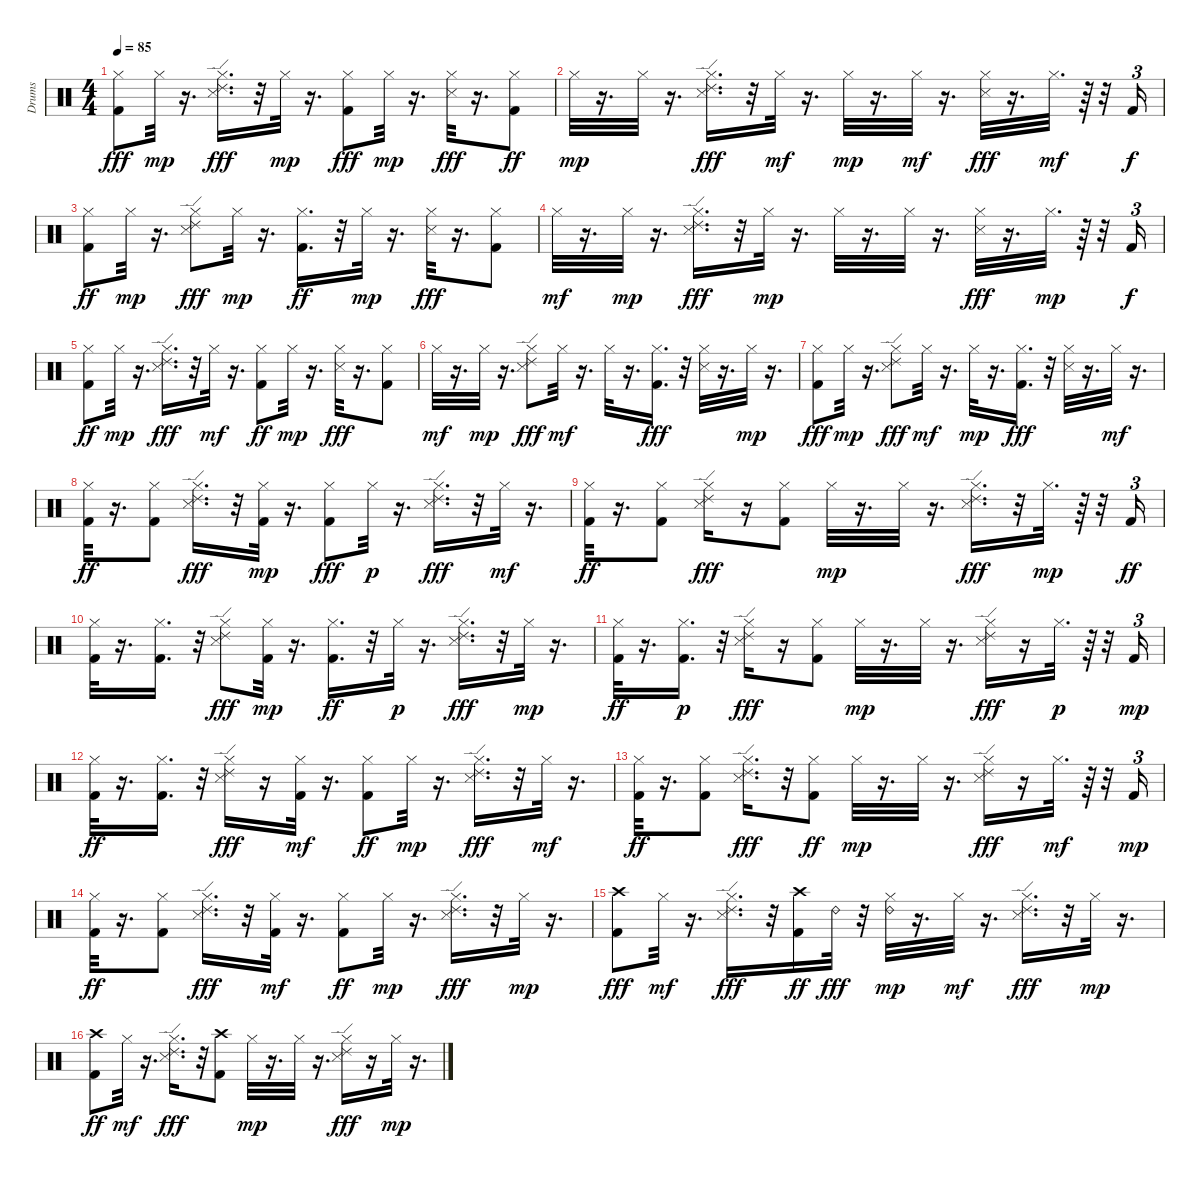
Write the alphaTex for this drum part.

\track ("Drums" "Drums") {instrument percussion}
\staff {score}
\articulation defaults
\ts (4 4)
\tempo 85
\clef neutral
\ks c
("Hi-Hat (closed)" "Kick (hit) 2").8{dy fff} "Hi-Hat (closed)".32{dy mp} r.16{d} ("Ride (edge) 2" "Hi-Hat (closed)" "Snare (side stick) 3").16{d dy fff} r.32 "Hi-Hat (closed)".32{dy mp} r.16{d} ("Hi-Hat (closed)" "Kick (hit) 2").8{dy fff} "Hi-Hat (closed)".32{dy mp} r.16{d} ("Hi-Hat (closed)" "Snare (side stick) 3").32{dy fff} r.16{d} ("Hi-Hat (closed)" "Kick (hit) 2").8{dy ff} |
"Hi-Hat (closed)".32{dy mp} r.16{d} "Hi-Hat (closed)".32 r.16{d} ("Ride (edge) 2" "Hi-Hat (closed)" "Snare (side stick) 3").16{d dy fff} r.32 "Hi-Hat (closed)".32{dy mf} r.16{d} "Hi-Hat (closed)".32{dy mp} r.16{d} "Hi-Hat (closed)".32{dy mf} r.16{d} ("Hi-Hat (closed)" "Snare (side stick) 3").32{dy fff} r.16{d} "Hi-Hat (closed)".32{d dy mf} r.64 r.32 "Kick (hit) 2".16{tu (3 2) dy f} |
("Hi-Hat (closed)" "Kick (hit) 2").8{dy ff} "Hi-Hat (closed)".32{dy mp} r.16{d} ("Ride (edge) 2" "Hi-Hat (closed)" "Snare (side stick) 3").8{dy fff} "Hi-Hat (closed)".32{dy mp} r.16{d} ("Hi-Hat (closed)" "Kick (hit) 2").16{d dy ff} r.32 "Hi-Hat (closed)".32{dy mp} r.16{d} ("Hi-Hat (closed)" "Snare (side stick) 3").32{dy fff} r.16{d} ("Hi-Hat (closed)" "Kick (hit) 2").8 |
"Hi-Hat (closed)".32{dy mf} r.16{d} "Hi-Hat (closed)".32{dy mp} r.16{d} ("Ride (edge) 2" "Hi-Hat (closed)" "Snare (side stick) 3").16{d dy fff} r.32 "Hi-Hat (closed)".32{dy mp} r.16{d} "Hi-Hat (closed)".32 r.16{d} "Hi-Hat (closed)".32 r.16{d} ("Hi-Hat (closed)" "Snare (side stick) 3").32{dy fff} r.16{d} "Hi-Hat (closed)".32{d dy mp} r.64 r.32 "Kick (hit) 2".16{tu (3 2) dy f} |
("Hi-Hat (closed)" "Kick (hit) 2").8{dy ff} "Hi-Hat (closed)".32{dy mp} r.16{d} ("Ride (edge) 2" "Hi-Hat (closed)" "Snare (side stick) 3").16{d dy fff} r.32 "Hi-Hat (closed)".32{dy mf} r.16{d} ("Hi-Hat (closed)" "Kick (hit) 2").8{dy ff} "Hi-Hat (closed)".32{dy mp} r.16{d} ("Hi-Hat (closed)" "Snare (side stick) 3").32{dy fff} r.16{d} ("Hi-Hat (closed)" "Kick (hit) 2").8 |
"Hi-Hat (closed)".32{dy mf} r.16{d} "Hi-Hat (closed)".32{dy mp} r.16{d} ("Ride (edge) 2" "Hi-Hat (closed)" "Snare (side stick) 3").8{dy fff} "Hi-Hat (closed)".32{dy mf} r.16{d} "Hi-Hat (closed)".32 r.16{d} ("Hi-Hat (closed)" "Kick (hit) 2").16{d dy fff} r.32 ("Hi-Hat (closed)" "Snare (side stick) 3").32 r.16{d} "Hi-Hat (closed)".32{dy mp} r.16{d} |
("Hi-Hat (closed)" "Kick (hit) 2").8{dy fff} "Hi-Hat (closed)".32{dy mp} r.16{d} ("Ride (edge) 2" "Hi-Hat (closed)" "Snare (side stick) 3").8{dy fff} "Hi-Hat (closed)".32{dy mf} r.16{d} "Hi-Hat (closed)".32{dy mp} r.16{d} ("Hi-Hat (closed)" "Kick (hit) 2").16{d dy fff} r.32 ("Hi-Hat (closed)" "Snare (side stick) 3").32 r.16{d} "Hi-Hat (closed)".32{dy mf} r.16{d} |
("Hi-Hat (closed)" "Kick (hit) 2").32{dy ff} r.16{d} ("Hi-Hat (closed)" "Kick (hit) 2").8 ("Ride (edge) 2" "Hi-Hat (closed)" "Snare (side stick) 3").16{d dy fff} r.32 ("Hi-Hat (closed)" "Kick (hit) 2").32{dy mp} r.16{d} ("Hi-Hat (closed)" "Kick (hit) 2").8{dy fff} "Hi-Hat (closed)".32{dy p} r.16{d} ("Ride (edge) 2" "Hi-Hat (closed)" "Snare (side stick) 3").16{d dy fff} r.32 "Hi-Hat (closed)".32{dy mf} r.16{d} |
("Hi-Hat (closed)" "Kick (hit) 2").32{dy ff} r.16{d} ("Hi-Hat (closed)" "Kick (hit) 2").8 ("Ride (edge) 2" "Hi-Hat (closed)" "Snare (side stick) 3").16{dy fff} r.16 ("Hi-Hat (closed)" "Kick (hit) 2").8 "Hi-Hat (closed)".32{dy mp} r.16{d} "Hi-Hat (closed)".32 r.16{d} ("Ride (edge) 2" "Hi-Hat (closed)" "Snare (side stick) 3").16{d dy fff} r.32 "Hi-Hat (closed)".32{d dy mp} r.64 r.32 "Kick (hit) 2".16{tu (3 2) dy ff} |
("Hi-Hat (closed)" "Kick (hit) 2").32 r.16{d} ("Hi-Hat (closed)" "Kick (hit) 2").16{d} r.32 ("Ride (edge) 2" "Hi-Hat (closed)" "Snare (side stick) 3").8{dy fff} ("Hi-Hat (closed)" "Kick (hit) 2").32{dy mp} r.16{d} ("Hi-Hat (closed)" "Kick (hit) 2").16{d dy ff} r.32 "Hi-Hat (closed)".32{dy p} r.16{d} ("Ride (edge) 2" "Hi-Hat (closed)" "Snare (side stick) 3").16{d dy fff} r.32 "Hi-Hat (closed)".32{dy mp} r.16{d} |
("Hi-Hat (closed)" "Kick (hit) 2").32{dy ff} r.16{d} ("Hi-Hat (closed)" "Kick (hit) 2").16{d dy p} r.32 ("Ride (edge) 2" "Hi-Hat (closed)" "Snare (side stick) 3").16{dy fff} r.16 ("Hi-Hat (closed)" "Kick (hit) 2").8 "Hi-Hat (closed)".32{dy mp} r.16{d} "Hi-Hat (closed)".32 r.16{d} ("Ride (edge) 2" "Hi-Hat (closed)" "Snare (side stick) 3").16{dy fff} r.16 "Hi-Hat (closed)".32{d dy p} r.64 r.32 "Kick (hit) 2".16{tu (3 2) dy mp} |
("Hi-Hat (closed)" "Kick (hit) 2").32{dy ff} r.16{d} ("Hi-Hat (closed)" "Kick (hit) 2").16{d} r.32 ("Ride (edge) 2" "Hi-Hat (closed)" "Snare (side stick) 3").16{dy fff} r.16 ("Hi-Hat (closed)" "Kick (hit) 2").32{dy mf} r.16{d} ("Hi-Hat (closed)" "Kick (hit) 2").8{dy ff} "Hi-Hat (closed)".32{dy mp} r.16{d} ("Ride (edge) 2" "Hi-Hat (closed)" "Snare (side stick) 3").16{d dy fff} r.32 "Hi-Hat (closed)".32{dy mf} r.16{d} |
("Hi-Hat (closed)" "Kick (hit) 2").32{dy ff} r.16{d} ("Hi-Hat (closed)" "Kick (hit) 2").8 ("Ride (edge) 2" "Hi-Hat (closed)" "Snare (side stick) 3").16{d dy fff} r.32 ("Hi-Hat (closed)" "Kick (hit) 2").8{dy ff} "Hi-Hat (closed)".32{dy mp} r.16{d} "Hi-Hat (closed)".32 r.16{d} ("Ride (edge) 2" "Hi-Hat (closed)" "Snare (side stick) 3").16{dy fff} r.16 "Hi-Hat (closed)".32{d dy mf} r.64 r.32 "Kick (hit) 2".16{tu (3 2) dy mp} |
("Hi-Hat (closed)" "Kick (hit) 2").32{dy ff} r.16{d} ("Hi-Hat (closed)" "Kick (hit) 2").8 ("Ride (edge) 2" "Hi-Hat (closed)" "Snare (side stick) 3").16{d dy fff} r.32 ("Hi-Hat (closed)" "Kick (hit) 2").32{dy mf} r.16{d} ("Hi-Hat (closed)" "Kick (hit) 2").8{dy ff} "Hi-Hat (closed)".32{dy mp} r.16{d} ("Ride (edge) 2" "Hi-Hat (closed)" "Snare (side stick) 3").16{d dy fff} r.32 "Hi-Hat (closed)".32{dy mp} r.16{d} |
("Crash high (hit)" "Kick (hit) 2").8{dy fff} "Hi-Hat (closed)".32{dy mf} r.16{d} ("Ride (edge) 2" "Hi-Hat (closed)" "Snare (side stick) 3").16{d dy fff} r.32 ("Crash high (hit)" "Kick (hit) 2").16{dy ff} "Ride (bell) 2".32{dy fff} r.32 ("Hi-Hat (closed)" "Ride (bell) 2").32{dy mp} r.16{d} "Hi-Hat (closed)".32{dy mf} r.16{d} ("Ride (edge) 2" "Hi-Hat (closed)" "Snare (side stick) 3").16{d dy fff} r.32 "Hi-Hat (closed)".32{dy mp} r.16{d} |
("Crash high (hit)" "Kick (hit) 2").8{dy ff} "Hi-Hat (closed)".32{dy mf} r.16{d} ("Ride (edge) 2" "Hi-Hat (closed)" "Snare (side stick) 3").16{d dy fff} r.32 ("Crash high (hit)" "Kick (hit) 2").8 "Hi-Hat (closed)".32{dy mp} r.16{d} "Hi-Hat (closed)".32 r.16{d} ("Ride (edge) 2" "Hi-Hat (closed)" "Snare (side stick) 3").16{dy fff} r.16 "Hi-Hat (closed)".32{dy mp} r.16{d}
